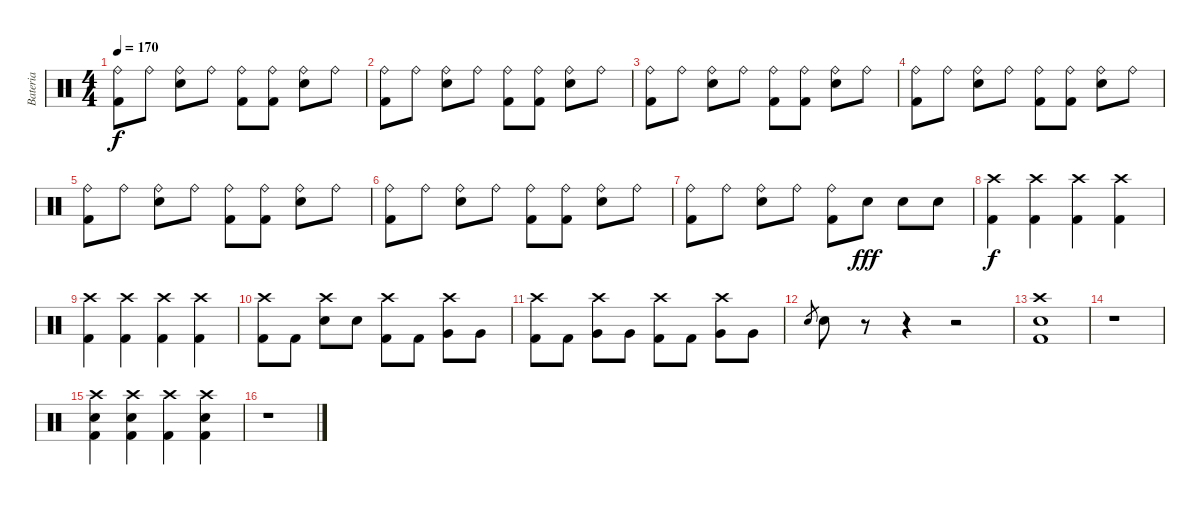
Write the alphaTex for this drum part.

\track ("Bateria" "Bateria") {instrument percussion}
\staff {score}
\articulation defaults
\ts (4 4)
\tempo 170
\clef neutral
\ks c
("Ride (bell)" "Kick (hit) 2").8{dy f} "Ride (bell)".8 ("Ride (bell)" "Snare (hit) 2").8 "Ride (bell)".8 ("Ride (bell)" "Kick (hit) 2").8 ("Ride (bell)" "Kick (hit) 2").8 ("Ride (bell)" "Snare (hit) 2").8 "Ride (bell)".8 |
("Ride (bell)" "Kick (hit) 2").8 "Ride (bell)".8 ("Ride (bell)" "Snare (hit) 2").8 "Ride (bell)".8 ("Ride (bell)" "Kick (hit) 2").8 ("Ride (bell)" "Kick (hit) 2").8 ("Ride (bell)" "Snare (hit) 2").8 "Ride (bell)".8 |
("Ride (bell)" "Kick (hit) 2").8 "Ride (bell)".8 ("Ride (bell)" "Snare (hit) 2").8 "Ride (bell)".8 ("Ride (bell)" "Kick (hit) 2").8 ("Ride (bell)" "Kick (hit) 2").8 ("Ride (bell)" "Snare (hit) 2").8 "Ride (bell)".8 |
("Ride (bell)" "Kick (hit) 2").8 "Ride (bell)".8 ("Ride (bell)" "Snare (hit) 2").8 "Ride (bell)".8 ("Ride (bell)" "Kick (hit) 2").8 ("Ride (bell)" "Kick (hit) 2").8 ("Ride (bell)" "Snare (hit) 2").8 "Ride (bell)".8 |
("Ride (bell)" "Kick (hit) 2").8 "Ride (bell)".8 ("Ride (bell)" "Snare (hit) 2").8 "Ride (bell)".8 ("Ride (bell)" "Kick (hit) 2").8 ("Ride (bell)" "Kick (hit) 2").8 ("Ride (bell)" "Snare (hit) 2").8 "Ride (bell)".8 |
("Ride (bell)" "Kick (hit) 2").8 "Ride (bell)".8 ("Ride (bell)" "Snare (hit) 2").8 "Ride (bell)".8 ("Ride (bell)" "Kick (hit) 2").8 ("Ride (bell)" "Kick (hit) 2").8 ("Ride (bell)" "Snare (hit) 2").8 "Ride (bell)".8 |
("Ride (bell)" "Kick (hit) 2").8 "Ride (bell)".8 ("Ride (bell)" "Snare (hit) 2").8 "Ride (bell)".8 ("Ride (bell)" "Kick (hit) 2").8 "Snare (hit) 2".8{dy fff} "Snare (hit) 2".8 "Snare (hit) 2".8 |
("Crash high (hit)" "Kick (hit) 2").4{dy f} ("Crash high (hit)" "Kick (hit) 2").4 ("Crash high (hit)" "Kick (hit) 2").4 ("Crash high (hit)" "Kick (hit) 2").4 |
("Crash high (hit)" "Kick (hit) 2").4 ("Crash high (hit)" "Kick (hit) 2").4 ("Crash high (hit)" "Kick (hit) 2").4 ("Crash high (hit)" "Kick (hit) 2").4 |
("Crash high (hit)" "Kick (hit) 2").8 "Kick (hit) 2".8 ("Crash high (hit)" "Snare (hit) 2").8 "Snare (hit) 2".8 ("Crash high (hit)" "Kick (hit) 2").8 "Kick (hit) 2".8 ("Crash high (hit)" "Very Low Tom (hit)").8 "Very Low Tom (hit)".8 |
("Crash high (hit)" "Kick (hit) 2").8 "Kick (hit) 2".8 ("Crash high (hit)" "Very Low Tom (hit)").8 "Very Low Tom (hit)".8 ("Crash high (hit)" "Kick (hit) 2").8 "Kick (hit) 2".8 ("Crash high (hit)" "Very Low Tom (hit)").8 "Very Low Tom (hit)".8 |
"Snare (hit) 2".8{gr} "Snare (hit) 2".8 r.8 r.4 r.2 |
("Crash high (hit)" "Snare (hit) 2" "Kick (hit) 2").1 |
r.1 |
("Crash high (hit)" "Snare (hit) 2" "Kick (hit) 2").4 ("Crash high (hit)" "Snare (hit) 2" "Kick (hit) 2").4 ("Crash high (hit)" "Kick (hit) 2").4 ("Crash high (hit)" "Snare (hit) 2" "Kick (hit) 2").4 |
r.1
